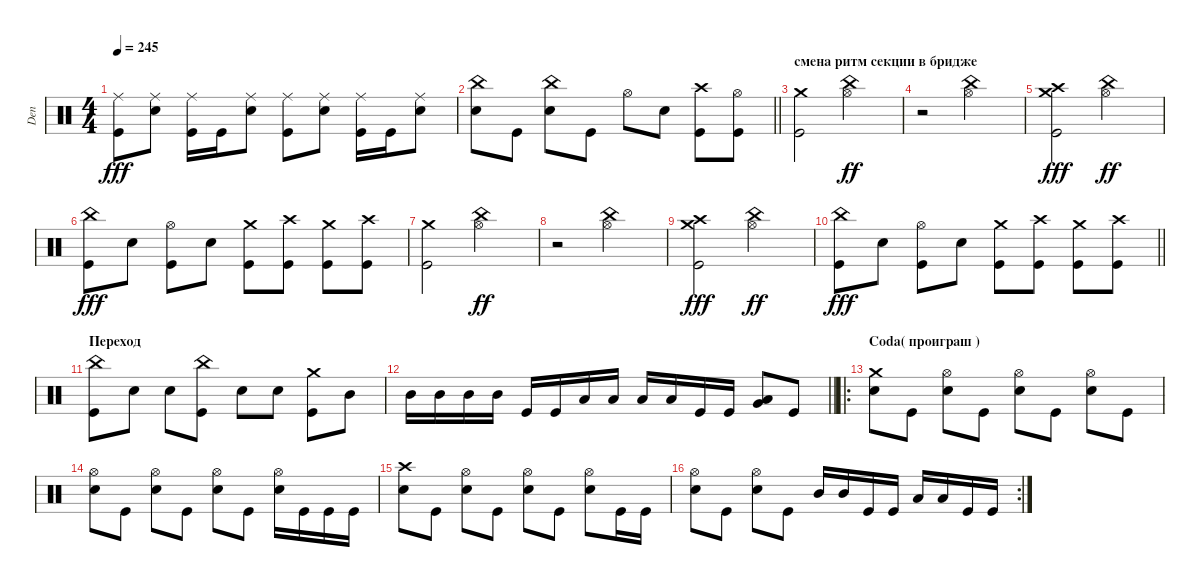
\track ("Den" "Den") {instrument percussion}
\staff {score}
\articulation defaults
\ts (4 4)
\tempo 245
\clef neutral
\ks c
("Kick (hit)" "Ride (middle)").8{dy fff} ("Electric Snare (hit)" "Ride (middle)").8 ("Kick (hit)" "Ride (middle)").16 "Kick (hit)".16 ("Electric Snare (hit)" "Ride (middle)").8 ("Kick (hit)" "Ride (middle)").8 ("Electric Snare (hit)" "Ride (middle)").8 ("Kick (hit)" "Ride (middle)").16 "Kick (hit)".16 ("Electric Snare (hit)" "Ride (middle)").8 |
\barLineRight lightlight
("Electric Snare (hit)" "China (hit)").8 "Kick (hit)".8 ("Electric Snare (hit)" "China (hit)").8 "Kick (hit)".8 "Hi-Hat (open)".8 "Electric Snare (hit)".8 ("Crash high (hit)" "Kick (hit)").8 ("Kick (hit)" "Hi-Hat (open)").8 |
\section ("" "смена ритм секции в бридже")
("Crash medium (hit)" "Kick (hit)").2 ("China (hit)" "Hi-Hat (open)").2{dy ff} |
r.2 ("China (hit)" "Hi-Hat (open)").2 |
("Crash high (hit)" "Crash medium (hit)" "Kick (hit)").2{dy fff} ("China (hit)" "Hi-Hat (open)").2{dy ff} |
("China (hit)" "Kick (hit)").8{dy fff} "Electric Snare (hit)".8 ("Kick (hit)" "Hi-Hat (open)").8 "Electric Snare (hit)".8 ("Crash medium (hit)" "Kick (hit)").8 ("Crash high (hit)" "Kick (hit)").8 ("Crash medium (hit)" "Kick (hit)").8 ("Crash high (hit)" "Kick (hit)").8 |
("Crash medium (hit)" "Kick (hit)").2 ("China (hit)" "Hi-Hat (open)").2{dy ff} |
r.2 ("China (hit)" "Hi-Hat (open)").2 |
("Crash high (hit)" "Crash medium (hit)" "Kick (hit)").2{dy fff} ("China (hit)" "Hi-Hat (open)").2{dy ff} |
\barLineRight lightlight
("China (hit)" "Kick (hit)").8{dy fff} "Electric Snare (hit)".8 ("Kick (hit)" "Hi-Hat (open)").8 "Electric Snare (hit)".8 ("Crash medium (hit)" "Kick (hit)").8 ("Crash high (hit)" "Kick (hit)").8 ("Crash medium (hit)" "Kick (hit)").8 ("Crash high (hit)" "Kick (hit)").8 |
\section ("" "Переход")
("China (hit)" "Kick (hit)").8 "Electric Snare (hit)".8 "Electric Snare (hit)".8 ("China (hit)" "Kick (hit)").8 "Electric Snare (hit)".8 "Electric Snare (hit)".8 ("Crash medium (hit)" "Kick (hit)").8 "Mid Tom (hit)".8 |
\barLineRight lightlight "Mid Tom (hit)".16 "Mid Tom (hit)".16 "Mid Tom (hit)".16 "Mid Tom (hit)".16 "Kick (hit)".16 "Kick (hit)".16 "Low Tom (hit)".16 "Low Tom (hit)".16 "Low Tom (hit)".16 "Low Tom (hit)".16 "Kick (hit)".16 "Kick (hit)".16
("Low Tom (hit)" "Very Low Tom (hit)").8 "Kick (hit)".8 |
\ro
\section ("" "Coda( проиграш )")
("Electric Snare (hit)" "Crash medium (hit)").8 "Kick (hit)".8 ("Electric Snare (hit)" "Hi-Hat (open)").8 "Kick (hit)".8 ("Electric Snare (hit)" "Hi-Hat (open)").8 "Kick (hit)".8 ("Electric Snare (hit)" "Hi-Hat (open)").8 "Kick (hit)".8 |
("Electric Snare (hit)" "Hi-Hat (open)").8 "Kick (hit)".8 ("Electric Snare (hit)" "Hi-Hat (open)").8 "Kick (hit)".8 ("Electric Snare (hit)" "Hi-Hat (open)").8 "Kick (hit)".8 ("Electric Snare (hit)" "Hi-Hat (open)").16 "Kick (hit)".16 "Kick (hit)".16 "Kick (hit)".16 |
("Electric Snare (hit)" "Crash high (hit)").8 "Kick (hit)".8 ("Electric Snare (hit)" "Hi-Hat (open)").8 "Kick (hit)".8 ("Electric Snare (hit)" "Hi-Hat (open)").8 "Kick (hit)".8 ("Electric Snare (hit)" "Hi-Hat (open)").8 "Kick (hit)".16 "Kick (hit)".16 |
\rc 2
("Electric Snare (hit)" "Hi-Hat (open)").8 "Kick (hit)".8 ("Electric Snare (hit)" "Hi-Hat (open)").8 "Kick (hit)".8 "Mid Tom (hit)".16 "Mid Tom (hit)".16 "Kick (hit)".16 "Kick (hit)".16 "Low Tom (hit)".16 "Low Tom (hit)".16 "Kick (hit)".16 "Kick (hit)".16
